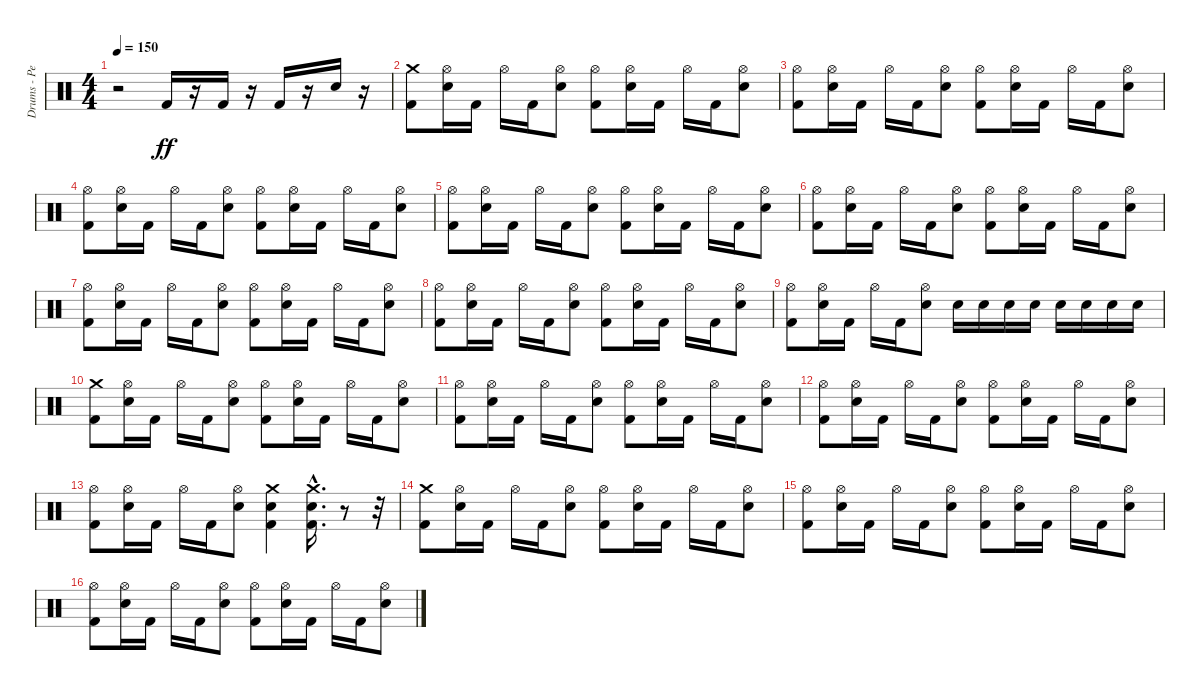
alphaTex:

\track ("Drums - Pete Finestone" "Drums - Pe") {instrument percussion}
\staff {score}
\articulation defaults
\ts (4 4)
\tempo 150
\clef neutral
\ks c
r.2{dy ff} "Kick (hit) 2".16 r.16 "Kick (hit) 2".16 r.16 "Kick (hit) 2".16 r.16 "Electric Snare (hit)".16 r.16 |
("Kick (hit) 2" "Crash medium (hit)").8 ("Electric Snare (hit)" "Hi-Hat (open)").16 "Kick (hit) 2".16 "Hi-Hat (open)".16 "Kick (hit) 2".16 ("Electric Snare (hit)" "Hi-Hat (open)").8 ("Kick (hit) 2" "Hi-Hat (open)").8 ("Electric Snare (hit)" "Hi-Hat (open)").16 "Kick (hit) 2".16 "Hi-Hat (open)".16 "Kick (hit) 2".16 ("Electric Snare (hit)" "Hi-Hat (open)").8 |
("Kick (hit) 2" "Hi-Hat (open)").8 ("Electric Snare (hit)" "Hi-Hat (open)").16 "Kick (hit) 2".16 "Hi-Hat (open)".16 "Kick (hit) 2".16 ("Electric Snare (hit)" "Hi-Hat (open)").8 ("Kick (hit) 2" "Hi-Hat (open)").8 ("Electric Snare (hit)" "Hi-Hat (open)").16 "Kick (hit) 2".16 "Hi-Hat (open)".16 "Kick (hit) 2".16 ("Electric Snare (hit)" "Hi-Hat (open)").8 |
("Kick (hit) 2" "Hi-Hat (open)").8 ("Electric Snare (hit)" "Hi-Hat (open)").16 "Kick (hit) 2".16 "Hi-Hat (open)".16 "Kick (hit) 2".16 ("Electric Snare (hit)" "Hi-Hat (open)").8 ("Kick (hit) 2" "Hi-Hat (open)").8 ("Electric Snare (hit)" "Hi-Hat (open)").16 "Kick (hit) 2".16 "Hi-Hat (open)".16 "Kick (hit) 2".16 ("Electric Snare (hit)" "Hi-Hat (open)").8 |
("Kick (hit) 2" "Hi-Hat (open)").8 ("Electric Snare (hit)" "Hi-Hat (open)").16 "Kick (hit) 2".16 "Hi-Hat (open)".16 "Kick (hit) 2".16 ("Electric Snare (hit)" "Hi-Hat (open)").8 ("Kick (hit) 2" "Hi-Hat (open)").8 ("Electric Snare (hit)" "Hi-Hat (open)").16 "Kick (hit) 2".16 "Hi-Hat (open)".16 "Kick (hit) 2".16 ("Electric Snare (hit)" "Hi-Hat (open)").8 |
("Kick (hit) 2" "Hi-Hat (open)").8 ("Electric Snare (hit)" "Hi-Hat (open)").16 "Kick (hit) 2".16 "Hi-Hat (open)".16 "Kick (hit) 2".16 ("Electric Snare (hit)" "Hi-Hat (open)").8 ("Kick (hit) 2" "Hi-Hat (open)").8 ("Electric Snare (hit)" "Hi-Hat (open)").16 "Kick (hit) 2".16 "Hi-Hat (open)".16 "Kick (hit) 2".16 ("Electric Snare (hit)" "Hi-Hat (open)").8 |
("Kick (hit) 2" "Hi-Hat (open)").8 ("Electric Snare (hit)" "Hi-Hat (open)").16 "Kick (hit) 2".16 "Hi-Hat (open)".16 "Kick (hit) 2".16 ("Electric Snare (hit)" "Hi-Hat (open)").8 ("Kick (hit) 2" "Hi-Hat (open)").8 ("Electric Snare (hit)" "Hi-Hat (open)").16 "Kick (hit) 2".16 "Hi-Hat (open)".16 "Kick (hit) 2".16 ("Electric Snare (hit)" "Hi-Hat (open)").8 |
("Kick (hit) 2" "Hi-Hat (open)").8 ("Electric Snare (hit)" "Hi-Hat (open)").16 "Kick (hit) 2".16 "Hi-Hat (open)".16 "Kick (hit) 2".16 ("Electric Snare (hit)" "Hi-Hat (open)").8 ("Kick (hit) 2" "Hi-Hat (open)").8 ("Electric Snare (hit)" "Hi-Hat (open)").16 "Kick (hit) 2".16 "Hi-Hat (open)".16 "Kick (hit) 2".16 ("Electric Snare (hit)" "Hi-Hat (open)").8 |
("Kick (hit) 2" "Hi-Hat (open)").8 ("Electric Snare (hit)" "Hi-Hat (open)").16 "Kick (hit) 2".16 "Hi-Hat (open)".16 "Kick (hit) 2".16 ("Electric Snare (hit)" "Hi-Hat (open)").8 "Electric Snare (hit)".16 "Electric Snare (hit)".16 "Electric Snare (hit)".16 "Electric Snare (hit)".16 "Electric Snare (hit)".16 "Electric Snare (hit)".16 "Electric Snare (hit)".16 "Electric Snare (hit)".16 |
("Kick (hit) 2" "Crash medium (hit)").8 ("Electric Snare (hit)" "Hi-Hat (open)").16 "Kick (hit) 2".16 "Hi-Hat (open)".16 "Kick (hit) 2".16 ("Electric Snare (hit)" "Hi-Hat (open)").8 ("Kick (hit) 2" "Hi-Hat (open)").8 ("Electric Snare (hit)" "Hi-Hat (open)").16 "Kick (hit) 2".16 "Hi-Hat (open)".16 "Kick (hit) 2".16 ("Electric Snare (hit)" "Hi-Hat (open)").8 |
("Kick (hit) 2" "Hi-Hat (open)").8 ("Electric Snare (hit)" "Hi-Hat (open)").16 "Kick (hit) 2".16 "Hi-Hat (open)".16 "Kick (hit) 2".16 ("Electric Snare (hit)" "Hi-Hat (open)").8 ("Kick (hit) 2" "Hi-Hat (open)").8 ("Electric Snare (hit)" "Hi-Hat (open)").16 "Kick (hit) 2".16 "Hi-Hat (open)".16 "Kick (hit) 2".16 ("Electric Snare (hit)" "Hi-Hat (open)").8 |
("Kick (hit) 2" "Hi-Hat (open)").8 ("Electric Snare (hit)" "Hi-Hat (open)").16 "Kick (hit) 2".16 "Hi-Hat (open)".16 "Kick (hit) 2".16 ("Electric Snare (hit)" "Hi-Hat (open)").8 ("Kick (hit) 2" "Hi-Hat (open)").8 ("Electric Snare (hit)" "Hi-Hat (open)").16 "Kick (hit) 2".16 "Hi-Hat (open)".16 "Kick (hit) 2".16 ("Electric Snare (hit)" "Hi-Hat (open)").8 |
("Kick (hit) 2" "Hi-Hat (open)").8 ("Electric Snare (hit)" "Hi-Hat (open)").16 "Kick (hit) 2".16 "Hi-Hat (open)".16 "Kick (hit) 2".16 ("Electric Snare (hit)" "Hi-Hat (open)").8 ("Kick (hit) 2" "Electric Snare (hit)" "Crash medium (hit)").4 ("Kick (hit) 2" "Electric Snare (hit)" "Crash medium (hit)"{hac}).16{d} r.8 r.32 |
("Kick (hit) 2" "Crash medium (hit)").8 ("Electric Snare (hit)" "Hi-Hat (open)").16 "Kick (hit) 2".16 "Hi-Hat (open)".16 "Kick (hit) 2".16 ("Electric Snare (hit)" "Hi-Hat (open)").8 ("Kick (hit) 2" "Hi-Hat (open)").8 ("Electric Snare (hit)" "Hi-Hat (open)").16 "Kick (hit) 2".16 "Hi-Hat (open)".16 "Kick (hit) 2".16 ("Electric Snare (hit)" "Hi-Hat (open)").8 |
("Kick (hit) 2" "Hi-Hat (open)").8 ("Electric Snare (hit)" "Hi-Hat (open)").16 "Kick (hit) 2".16 "Hi-Hat (open)".16 "Kick (hit) 2".16 ("Electric Snare (hit)" "Hi-Hat (open)").8 ("Kick (hit) 2" "Hi-Hat (open)").8 ("Electric Snare (hit)" "Hi-Hat (open)").16 "Kick (hit) 2".16 "Hi-Hat (open)".16 "Kick (hit) 2".16 ("Electric Snare (hit)" "Hi-Hat (open)").8 |
("Kick (hit) 2" "Hi-Hat (open)").8 ("Electric Snare (hit)" "Hi-Hat (open)").16 "Kick (hit) 2".16 "Hi-Hat (open)".16 "Kick (hit) 2".16 ("Electric Snare (hit)" "Hi-Hat (open)").8 ("Kick (hit) 2" "Hi-Hat (open)").8 ("Electric Snare (hit)" "Hi-Hat (open)").16 "Kick (hit) 2".16 "Hi-Hat (open)".16 "Kick (hit) 2".16 ("Electric Snare (hit)" "Hi-Hat (open)").8
